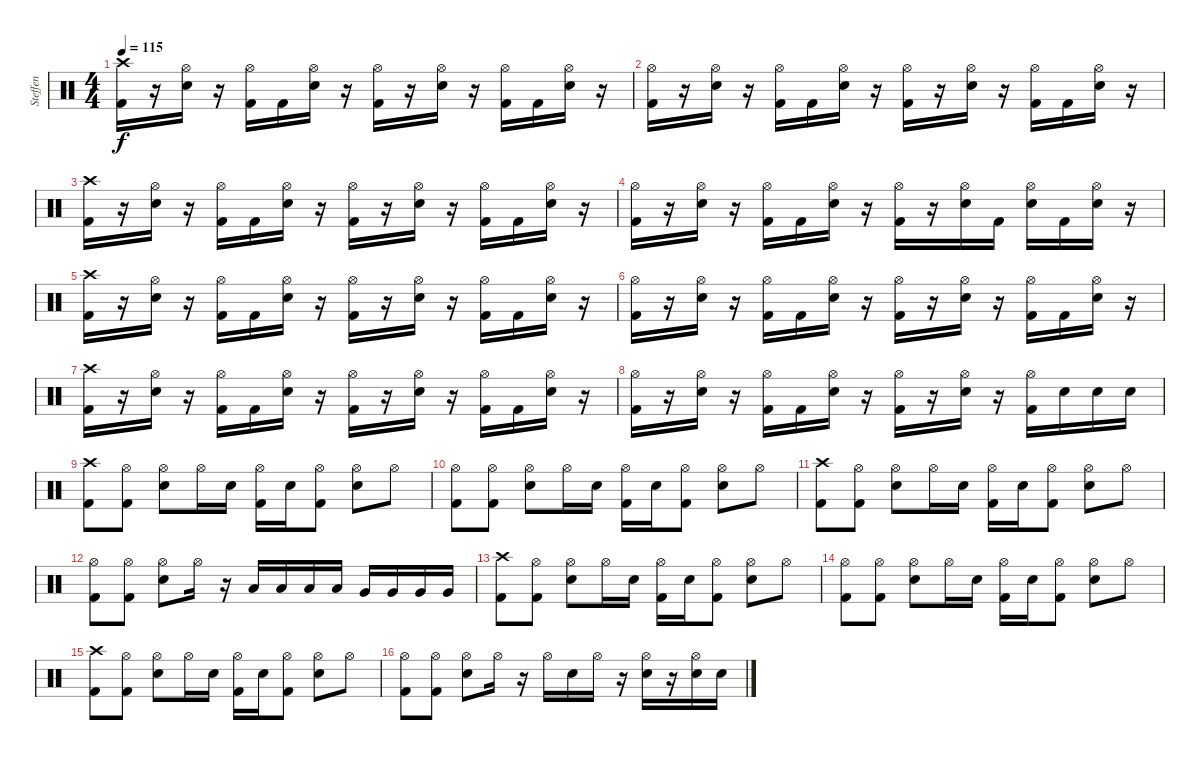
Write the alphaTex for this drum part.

\track ("Steffen" "Steffen") {instrument percussion}
\staff {score}
\articulation defaults
\ts (4 4)
\tempo 115
\clef neutral
\ks c
("Crash high (hit)" "Kick (hit) 2").16{dy f} r.16 ("Hi-Hat (open)" "Snare (hit) 2").16 r.16 ("Hi-Hat (open)" "Kick (hit) 2").16 "Kick (hit) 2".16 ("Hi-Hat (open)" "Snare (hit) 2").16 r.16 ("Hi-Hat (open)" "Kick (hit) 2").16 r.16 ("Hi-Hat (open)" "Snare (hit) 2").16 r.16 ("Hi-Hat (open)" "Kick (hit) 2").16 "Kick (hit) 2".16 ("Hi-Hat (open)" "Snare (hit) 2").16 r.16 |
("Hi-Hat (open)" "Kick (hit) 2").16 r.16 ("Hi-Hat (open)" "Snare (hit) 2").16 r.16 ("Hi-Hat (open)" "Kick (hit) 2").16 "Kick (hit) 2".16 ("Hi-Hat (open)" "Snare (hit) 2").16 r.16 ("Hi-Hat (open)" "Kick (hit) 2").16 r.16 ("Hi-Hat (open)" "Snare (hit) 2").16 r.16 ("Hi-Hat (open)" "Kick (hit) 2").16 "Kick (hit) 2".16 ("Hi-Hat (open)" "Snare (hit) 2").16 r.16 |
("Crash high (hit)" "Kick (hit) 2").16 r.16 ("Hi-Hat (open)" "Snare (hit) 2").16 r.16 ("Hi-Hat (open)" "Kick (hit) 2").16 "Kick (hit) 2".16 ("Hi-Hat (open)" "Snare (hit) 2").16 r.16 ("Hi-Hat (open)" "Kick (hit) 2").16 r.16 ("Hi-Hat (open)" "Snare (hit) 2").16 r.16 ("Hi-Hat (open)" "Kick (hit) 2").16 "Kick (hit) 2".16 ("Hi-Hat (open)" "Snare (hit) 2").16 r.16 |
("Hi-Hat (open)" "Kick (hit) 2").16 r.16 ("Hi-Hat (open)" "Snare (hit) 2").16 r.16 ("Hi-Hat (open)" "Kick (hit) 2").16 "Kick (hit) 2".16 ("Hi-Hat (open)" "Snare (hit) 2").16 r.16 ("Hi-Hat (open)" "Kick (hit) 2").16 r.16 ("Hi-Hat (open)" "Snare (hit) 2").16 "Kick (hit) 2".16 ("Hi-Hat (open)" "Snare (hit) 2").16 "Kick (hit) 2".16 ("Hi-Hat (open)" "Snare (hit) 2").16 r.16 |
("Crash high (hit)" "Kick (hit) 2").16 r.16 ("Hi-Hat (open)" "Snare (hit) 2").16 r.16 ("Hi-Hat (open)" "Kick (hit) 2").16 "Kick (hit) 2".16 ("Hi-Hat (open)" "Snare (hit) 2").16 r.16 ("Hi-Hat (open)" "Kick (hit) 2").16 r.16 ("Hi-Hat (open)" "Snare (hit) 2").16 r.16 ("Hi-Hat (open)" "Kick (hit) 2").16 "Kick (hit) 2".16 ("Hi-Hat (open)" "Snare (hit) 2").16 r.16 |
("Hi-Hat (open)" "Kick (hit) 2").16 r.16 ("Hi-Hat (open)" "Snare (hit) 2").16 r.16 ("Hi-Hat (open)" "Kick (hit) 2").16 "Kick (hit) 2".16 ("Hi-Hat (open)" "Snare (hit) 2").16 r.16 ("Hi-Hat (open)" "Kick (hit) 2").16 r.16 ("Hi-Hat (open)" "Snare (hit) 2").16 r.16 ("Hi-Hat (open)" "Kick (hit) 2").16 "Kick (hit) 2".16 ("Hi-Hat (open)" "Snare (hit) 2").16 r.16 |
("Crash high (hit)" "Kick (hit) 2").16 r.16 ("Hi-Hat (open)" "Snare (hit) 2").16 r.16 ("Hi-Hat (open)" "Kick (hit) 2").16 "Kick (hit) 2".16 ("Hi-Hat (open)" "Snare (hit) 2").16 r.16 ("Hi-Hat (open)" "Kick (hit) 2").16 r.16 ("Hi-Hat (open)" "Snare (hit) 2").16 r.16 ("Hi-Hat (open)" "Kick (hit) 2").16 "Kick (hit) 2".16 ("Hi-Hat (open)" "Snare (hit) 2").16 r.16 |
("Hi-Hat (open)" "Kick (hit) 2").16 r.16 ("Hi-Hat (open)" "Snare (hit) 2").16 r.16 ("Hi-Hat (open)" "Kick (hit) 2").16 "Kick (hit) 2".16 ("Hi-Hat (open)" "Snare (hit) 2").16 r.16 ("Hi-Hat (open)" "Kick (hit) 2").16 r.16 ("Hi-Hat (open)" "Snare (hit) 2").16 r.16 ("Hi-Hat (open)" "Kick (hit) 2").16 "Snare (hit) 2".16 "Snare (hit) 2".16 "Snare (hit) 2".16 |
("Crash high (hit)" "Kick (hit) 2").8 ("Hi-Hat (open)" "Kick (hit) 2").8 ("Hi-Hat (open)" "Snare (hit) 2").8 "Hi-Hat (open)".16 "Snare (hit) 2".16 ("Hi-Hat (open)" "Kick (hit) 2").16 "Snare (hit) 2".16 ("Hi-Hat (open)" "Kick (hit) 2").8 ("Hi-Hat (open)" "Snare (hit) 2").8 "Hi-Hat (open)".8 |
("Hi-Hat (open)" "Kick (hit) 2").8 ("Hi-Hat (open)" "Kick (hit) 2").8 ("Hi-Hat (open)" "Snare (hit) 2").8 "Hi-Hat (open)".16 "Snare (hit) 2".16 ("Hi-Hat (open)" "Kick (hit) 2").16 "Snare (hit) 2".16 ("Hi-Hat (open)" "Kick (hit) 2").8 ("Hi-Hat (open)" "Snare (hit) 2").8 "Hi-Hat (open)".8 |
("Crash high (hit)" "Kick (hit) 2").8 ("Hi-Hat (open)" "Kick (hit) 2").8 ("Hi-Hat (open)" "Snare (hit) 2").8 "Hi-Hat (open)".16 "Snare (hit) 2".16 ("Hi-Hat (open)" "Kick (hit) 2").16 "Snare (hit) 2".16 ("Hi-Hat (open)" "Kick (hit) 2").8 ("Hi-Hat (open)" "Snare (hit) 2").8 "Hi-Hat (open)".8 |
("Hi-Hat (open)" "Kick (hit) 2").8 ("Hi-Hat (open)" "Kick (hit) 2").8 ("Hi-Hat (open)" "Snare (hit) 2").8 "Hi-Hat (open)".16 r.16 "Low Tom (hit)".16 "Low Tom (hit)".16 "Low Tom (hit)".16 "Low Tom (hit)".16 "Very Low Tom (hit)".16 "Very Low Tom (hit)".16 "Very Low Tom (hit)".16 "Very Low Tom (hit)".16 |
("Crash high (hit)" "Kick (hit) 2").8 ("Hi-Hat (open)" "Kick (hit) 2").8 ("Hi-Hat (open)" "Snare (hit) 2").8 "Hi-Hat (open)".16 "Snare (hit) 2".16 ("Hi-Hat (open)" "Kick (hit) 2").16 "Snare (hit) 2".16 ("Hi-Hat (open)" "Kick (hit) 2").8 ("Hi-Hat (open)" "Snare (hit) 2").8 "Hi-Hat (open)".8 |
("Hi-Hat (open)" "Kick (hit) 2").8 ("Hi-Hat (open)" "Kick (hit) 2").8 ("Hi-Hat (open)" "Snare (hit) 2").8 "Hi-Hat (open)".16 "Snare (hit) 2".16 ("Hi-Hat (open)" "Kick (hit) 2").16 "Snare (hit) 2".16 ("Hi-Hat (open)" "Kick (hit) 2").8 ("Hi-Hat (open)" "Snare (hit) 2").8 "Hi-Hat (open)".8 |
("Crash high (hit)" "Kick (hit) 2").8 ("Hi-Hat (open)" "Kick (hit) 2").8 ("Hi-Hat (open)" "Snare (hit) 2").8 "Hi-Hat (open)".16 "Snare (hit) 2".16 ("Hi-Hat (open)" "Kick (hit) 2").16 "Snare (hit) 2".16 ("Hi-Hat (open)" "Kick (hit) 2").8 ("Hi-Hat (open)" "Snare (hit) 2").8 "Hi-Hat (open)".8 |
("Hi-Hat (open)" "Kick (hit) 2").8 ("Hi-Hat (open)" "Kick (hit) 2").8 ("Hi-Hat (open)" "Snare (hit) 2").8 "Hi-Hat (open)".16 r.16 "Hi-Hat (open)".16 "Snare (hit) 2".16 "Hi-Hat (open)".16 r.16 ("Hi-Hat (open)" "Snare (hit) 2").16 r.16 ("Hi-Hat (open)" "Snare (hit) 2").16 "Snare (hit) 2".16
